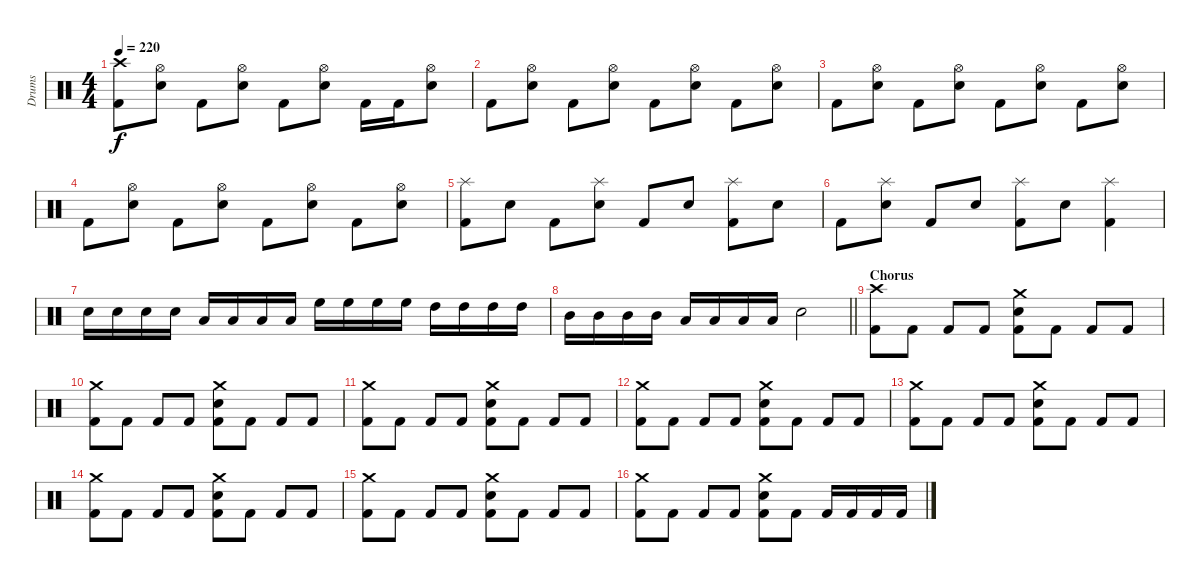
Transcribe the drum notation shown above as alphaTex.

\track ("Drums" "Drums") {instrument percussion}
\staff {score}
\articulation defaults
\ts (4 4)
\tempo 220
\clef neutral
\ks c
("Crash high (hit)" "Kick (hit) 2").8{dy f} ("Hi-Hat (open)" "Snare (hit) 2").8 "Kick (hit) 2".8 ("Hi-Hat (open)" "Snare (hit) 2").8 "Kick (hit) 2".8 ("Hi-Hat (open)" "Snare (hit) 2").8 "Kick (hit) 2".16 "Kick (hit) 2".16 ("Hi-Hat (open)" "Snare (hit) 2").8 |
"Kick (hit) 2".8 ("Hi-Hat (open)" "Snare (hit) 2").8 "Kick (hit) 2".8 ("Hi-Hat (open)" "Snare (hit) 2").8 "Kick (hit) 2".8 ("Hi-Hat (open)" "Snare (hit) 2").8 "Kick (hit) 2".8 ("Hi-Hat (open)" "Snare (hit) 2").8 |
"Kick (hit) 2".8 ("Hi-Hat (open)" "Snare (hit) 2").8 "Kick (hit) 2".8 ("Hi-Hat (open)" "Snare (hit) 2").8 "Kick (hit) 2".8 ("Hi-Hat (open)" "Snare (hit) 2").8 "Kick (hit) 2".8 ("Hi-Hat (open)" "Snare (hit) 2").8 |
"Kick (hit) 2".8 ("Hi-Hat (open)" "Snare (hit) 2").8 "Kick (hit) 2".8 ("Hi-Hat (open)" "Snare (hit) 2").8 "Kick (hit) 2".8 ("Hi-Hat (open)" "Snare (hit) 2").8 "Kick (hit) 2".8 ("Hi-Hat (open)" "Snare (hit) 2").8 |
("Splash (hit)" "Kick (hit) 2").8 "Snare (hit) 2".8 "Kick (hit) 2".8 ("Splash (hit)" "Snare (hit) 2").8 "Kick (hit) 2".8 "Snare (hit) 2".8 ("Splash (hit)" "Kick (hit) 2").8 "Snare (hit) 2".8 |
"Kick (hit) 2".8 ("Splash (hit)" "Snare (hit) 2").8 "Kick (hit) 2".8 "Snare (hit) 2".8 ("Splash (hit)" "Kick (hit) 2").8 "Snare (hit) 2".8 ("Splash (hit)" "Kick (hit) 2").4 |
"Snare (hit) 2".16 "Snare (hit) 2".16 "Snare (hit) 2".16 "Snare (hit) 2".16 "Low Tom (hit)".16 "Low Tom (hit)".16 "Low Tom (hit)".16 "Low Tom (hit)".16 "High Floor Tom (hit)".16 "High Floor Tom (hit)".16 "High Floor Tom (hit)".16 "High Floor Tom (hit)".16 "High Tom (hit)".16 "High Tom (hit)".16 "High Tom (hit)".16 "High Tom (hit)".16 |
\barLineRight lightlight "Mid Tom (hit)".16 "Mid Tom (hit)".16 "Mid Tom (hit)".16 "Mid Tom (hit)".16 "Low Tom (hit)".16 "Low Tom (hit)".16 "Low Tom (hit)".16 "Low Tom (hit)".16 "Snare (hit) 2".2
|
\section ("" "Chorus")
("Crash high (hit)" "Kick (hit) 2").8 "Kick (hit) 2".8 "Kick (hit) 2".8 "Kick (hit) 2".8 ("Crash medium (hit)" "Snare (hit) 2" "Kick (hit) 2").8 "Kick (hit) 2".8 "Kick (hit) 2".8 "Kick (hit) 2".8 |
("Crash medium (hit)" "Kick (hit) 2").8 "Kick (hit) 2".8 "Kick (hit) 2".8 "Kick (hit) 2".8 ("Crash medium (hit)" "Snare (hit) 2" "Kick (hit) 2").8 "Kick (hit) 2".8 "Kick (hit) 2".8 "Kick (hit) 2".8 |
("Crash medium (hit)" "Kick (hit) 2").8 "Kick (hit) 2".8 "Kick (hit) 2".8 "Kick (hit) 2".8 ("Crash medium (hit)" "Snare (hit) 2" "Kick (hit) 2").8 "Kick (hit) 2".8 "Kick (hit) 2".8 "Kick (hit) 2".8 |
("Crash medium (hit)" "Kick (hit) 2").8 "Kick (hit) 2".8 "Kick (hit) 2".8 "Kick (hit) 2".8 ("Crash medium (hit)" "Snare (hit) 2" "Kick (hit) 2").8 "Kick (hit) 2".8 "Kick (hit) 2".8 "Kick (hit) 2".8 |
("Crash medium (hit)" "Kick (hit) 2").8 "Kick (hit) 2".8 "Kick (hit) 2".8 "Kick (hit) 2".8 ("Crash medium (hit)" "Snare (hit) 2" "Kick (hit) 2").8 "Kick (hit) 2".8 "Kick (hit) 2".8 "Kick (hit) 2".8 |
("Crash medium (hit)" "Kick (hit) 2").8 "Kick (hit) 2".8 "Kick (hit) 2".8 "Kick (hit) 2".8 ("Crash medium (hit)" "Snare (hit) 2" "Kick (hit) 2").8 "Kick (hit) 2".8 "Kick (hit) 2".8 "Kick (hit) 2".8 |
("Crash medium (hit)" "Kick (hit) 2").8 "Kick (hit) 2".8 "Kick (hit) 2".8 "Kick (hit) 2".8 ("Crash medium (hit)" "Snare (hit) 2" "Kick (hit) 2").8 "Kick (hit) 2".8 "Kick (hit) 2".8 "Kick (hit) 2".8 |
("Crash medium (hit)" "Kick (hit) 2").8 "Kick (hit) 2".8 "Kick (hit) 2".8 "Kick (hit) 2".8 ("Crash medium (hit)" "Snare (hit) 2" "Kick (hit) 2").8 "Kick (hit) 2".8 "Kick (hit) 2".16 "Kick (hit) 2".16 "Kick (hit) 2".16 "Kick (hit) 2".16
